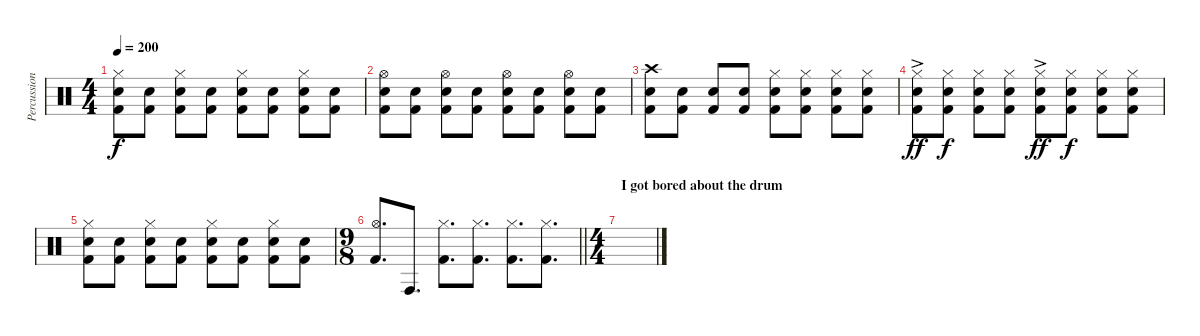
\track ("Percussions" "Percussion") {instrument percussion}
\staff {score}
\articulation defaults
\ts (4 4)
\tempo 200
\clef neutral
\ks c
("Hi-Hat (closed)" "Electric Snare (hit)" "Kick (hit) 2").8{dy f} ("Electric Snare (hit)" "Kick (hit) 2").8 ("Hi-Hat (closed)" "Electric Snare (hit)" "Kick (hit) 2").8 ("Electric Snare (hit)" "Kick (hit) 2").8 ("Hi-Hat (closed)" "Electric Snare (hit)" "Kick (hit) 2").8 ("Electric Snare (hit)" "Kick (hit) 2").8 ("Hi-Hat (closed)" "Electric Snare (hit)" "Kick (hit) 2").8 ("Electric Snare (hit)" "Kick (hit) 2").8 |
("Hi-Hat (open)" "Electric Snare (hit)" "Kick (hit) 2").8 ("Electric Snare (hit)" "Kick (hit) 2").8 ("Hi-Hat (open)" "Electric Snare (hit)" "Kick (hit) 2").8 ("Electric Snare (hit)" "Kick (hit) 2").8 ("Hi-Hat (open)" "Electric Snare (hit)" "Kick (hit) 2").8 ("Electric Snare (hit)" "Kick (hit) 2").8 ("Hi-Hat (open)" "Electric Snare (hit)" "Kick (hit) 2").8 ("Electric Snare (hit)" "Kick (hit) 2").8 |
("Crash high (hit)" "Electric Snare (hit)" "Kick (hit) 2").8 ("Electric Snare (hit)" "Kick (hit) 2").8 ("Electric Snare (hit)" "Kick (hit) 2").8 ("Electric Snare (hit)" "Kick (hit) 2").8 ("Hi-Hat (closed)" "Electric Snare (hit)" "Kick (hit) 2").8 ("Hi-Hat (closed)" "Electric Snare (hit)" "Kick (hit) 2").8 ("Hi-Hat (closed)" "Electric Snare (hit)" "Kick (hit) 2").8 ("Hi-Hat (closed)" "Electric Snare (hit)" "Kick (hit) 2").8 |
("Hi-Hat (closed)"{ac} "Electric Snare (hit)" "Kick (hit) 2").8{dy ff} ("Hi-Hat (closed)" "Electric Snare (hit)" "Kick (hit) 2").8{dy f} ("Hi-Hat (closed)" "Electric Snare (hit)" "Kick (hit) 2").8 ("Hi-Hat (closed)" "Electric Snare (hit)" "Kick (hit) 2").8 ("Hi-Hat (closed)"{ac} "Electric Snare (hit)" "Kick (hit) 2").8{dy ff} ("Hi-Hat (closed)" "Electric Snare (hit)" "Kick (hit) 2").8{dy f} ("Hi-Hat (closed)" "Electric Snare (hit)" "Kick (hit) 2").8 ("Hi-Hat (closed)" "Electric Snare (hit)" "Kick (hit) 2").8 |
("Hi-Hat (closed)" "Electric Snare (hit)" "Kick (hit) 2").8 ("Electric Snare (hit)" "Kick (hit) 2").8 ("Hi-Hat (closed)" "Electric Snare (hit)" "Kick (hit) 2").8 ("Electric Snare (hit)" "Kick (hit) 2").8 ("Hi-Hat (closed)" "Electric Snare (hit)" "Kick (hit) 2").8 ("Electric Snare (hit)" "Kick (hit) 2").8 ("Hi-Hat (closed)" "Electric Snare (hit)" "Kick (hit) 2").8 ("Electric Snare (hit)" "Kick (hit) 2").8 |
\ts (9 8)
\barLineRight lightlight
("Hi-Hat (open)" "Kick (hit) 2").8{d} "Conga high (hit)".8{d} ("Hi-Hat (closed)" "Kick (hit) 2").8{d} ("Hi-Hat (closed)" "Kick (hit) 2").8{d} ("Hi-Hat (closed)" "Kick (hit) 2").8{d} ("Hi-Hat (closed)" "Kick (hit) 2").8{d} |
\ts (4 4)
\section ("" "I got bored about the drum")
